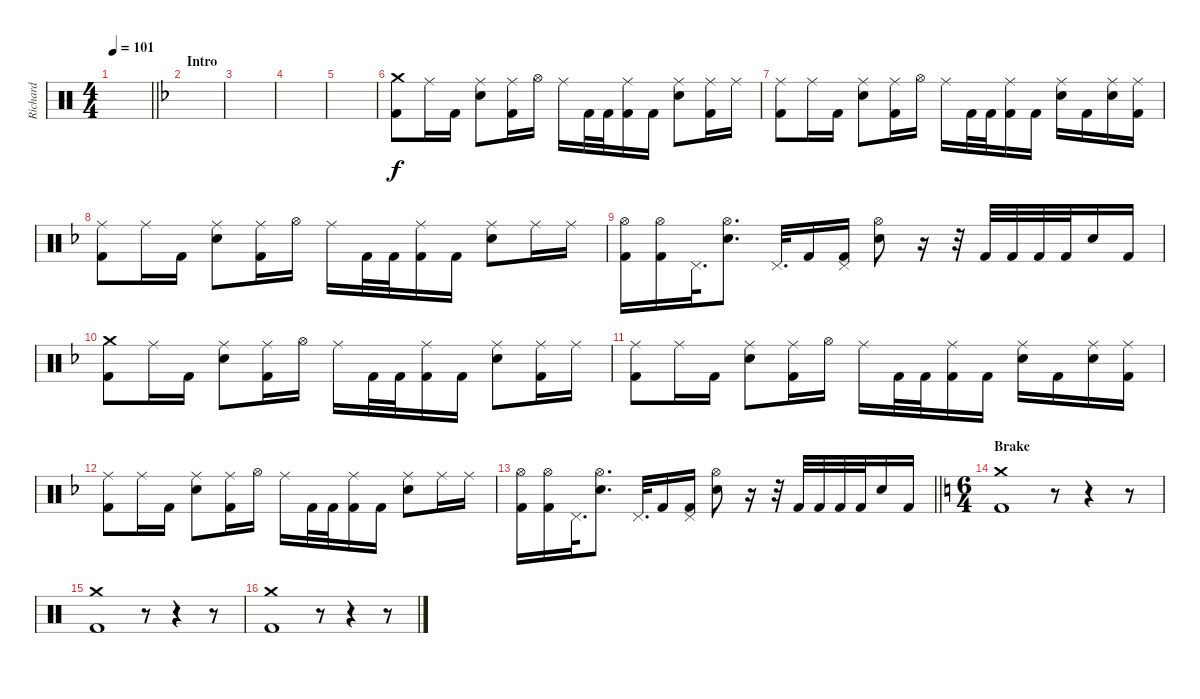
\track ("Richard" "Richard") {instrument percussion}
\staff {score}
\articulation defaults
\ts (4 4)
\tempo 101
\clef neutral
\barLineRight lightlight
\ks c
|
\section ("" "Intro")
\ks f
|
|
|
|
("Crash medium (hit)" "Kick (hit) 2").8 "Ride (middle)".16 "Kick (hit) 2".16 ("Ride (middle)" "Electric Snare (hit)").8 ("Ride (middle)" "Kick (hit) 2").16 "Hi-Hat (open)".16 "Ride (middle)".16 "Kick (hit) 2".32 "Kick (hit) 2".32 ("Ride (middle)" "Kick (hit) 2").16 "Kick (hit) 2".16 ("Ride (middle)" "Electric Snare (hit)").8 ("Ride (middle)" "Kick (hit) 2").16 "Ride (middle)".16 |
("Ride (middle)" "Kick (hit) 2").8 "Ride (middle)".16 "Kick (hit) 2".16 ("Ride (middle)" "Electric Snare (hit)").8 ("Ride (middle)" "Kick (hit) 2").16 "Hi-Hat (open)".16 "Ride (middle)".16 "Kick (hit) 2".32 "Kick (hit) 2".32 ("Ride (middle)" "Kick (hit) 2").16 "Kick (hit) 2".16 ("Ride (middle)" "Electric Snare (hit)").16 "Kick (hit) 2".16 ("Ride (middle)" "Electric Snare (hit)").16 ("Ride (middle)" "Kick (hit) 2").16 |
("Ride (middle)" "Kick (hit) 2").8 "Ride (middle)".16 "Kick (hit) 2".16 ("Ride (middle)" "Electric Snare (hit)").8 ("Ride (middle)" "Kick (hit) 2").16 "Hi-Hat (open)".16 "Ride (middle)".16 "Kick (hit) 2".32 "Kick (hit) 2".32 ("Ride (middle)" "Kick (hit) 2").16 "Kick (hit) 2".16 ("Ride (middle)" "Electric Snare (hit)").8 "Ride (middle)".16 "Ride (middle)".16 |
("Hi-Hat (open)" "Kick (hit) 2").16 ("Hi-Hat (open)" "Kick (hit) 2").16 "Pedal Hi-Hat (hit)".32{d} ("Hi-Hat (open)" "Electric Snare (hit)").8{d} "Pedal Hi-Hat (hit)".32{d} "Kick (hit) 2".16 ("Pedal Hi-Hat (hit)" "Kick (hit) 2").16 ("Hi-Hat (open)" "Electric Snare (hit)").8 r.16 r.32 "Kick (hit) 2".32 "Kick (hit) 2".32 "Kick (hit) 2".32 "Kick (hit) 2".32 "Electric Snare (hit)".16 "Kick (hit) 2".16 |
("Crash medium (hit)" "Kick (hit) 2").8 "Ride (middle)".16 "Kick (hit) 2".16 ("Ride (middle)" "Electric Snare (hit)").8 ("Ride (middle)" "Kick (hit) 2").16 "Hi-Hat (open)".16 "Ride (middle)".16 "Kick (hit) 2".32 "Kick (hit) 2".32 ("Ride (middle)" "Kick (hit) 2").16 "Kick (hit) 2".16 ("Ride (middle)" "Electric Snare (hit)").8 ("Ride (middle)" "Kick (hit) 2").16 "Ride (middle)".16 |
("Ride (middle)" "Kick (hit) 2").8 "Ride (middle)".16 "Kick (hit) 2".16 ("Ride (middle)" "Electric Snare (hit)").8 ("Ride (middle)" "Kick (hit) 2").16 "Hi-Hat (open)".16 "Ride (middle)".16 "Kick (hit) 2".32 "Kick (hit) 2".32 ("Ride (middle)" "Kick (hit) 2").16 "Kick (hit) 2".16 ("Ride (middle)" "Electric Snare (hit)").16 "Kick (hit) 2".16 ("Ride (middle)" "Electric Snare (hit)").16 ("Ride (middle)" "Kick (hit) 2").16 |
("Ride (middle)" "Kick (hit) 2").8 "Ride (middle)".16 "Kick (hit) 2".16 ("Ride (middle)" "Electric Snare (hit)").8 ("Ride (middle)" "Kick (hit) 2").16 "Hi-Hat (open)".16 "Ride (middle)".16 "Kick (hit) 2".32 "Kick (hit) 2".32 ("Ride (middle)" "Kick (hit) 2").16 "Kick (hit) 2".16 ("Ride (middle)" "Electric Snare (hit)").8 "Ride (middle)".16 "Ride (middle)".16 |
\barLineRight lightlight
("Hi-Hat (open)" "Kick (hit) 2").16 ("Hi-Hat (open)" "Kick (hit) 2").16 "Pedal Hi-Hat (hit)".32{d} ("Hi-Hat (open)" "Electric Snare (hit)").8{d} "Pedal Hi-Hat (hit)".32{d} "Kick (hit) 2".16 ("Pedal Hi-Hat (hit)" "Kick (hit) 2").16 ("Hi-Hat (open)" "Electric Snare (hit)").8 r.16 r.32 "Kick (hit) 2".32 "Kick (hit) 2".32 "Kick (hit) 2".32 "Kick (hit) 2".32 "Electric Snare (hit)".16 "Kick (hit) 2".16 |
\ts (6 4)
\section ("" "Brake")
\ks c
("Crash medium (hit)" "Kick (hit) 2").1 r.8 r.4 r.8 |
("Crash medium (hit)" "Kick (hit) 2").1 r.8 r.4 r.8 |
("Crash medium (hit)" "Kick (hit) 2").1 r.8 r.4 r.8
